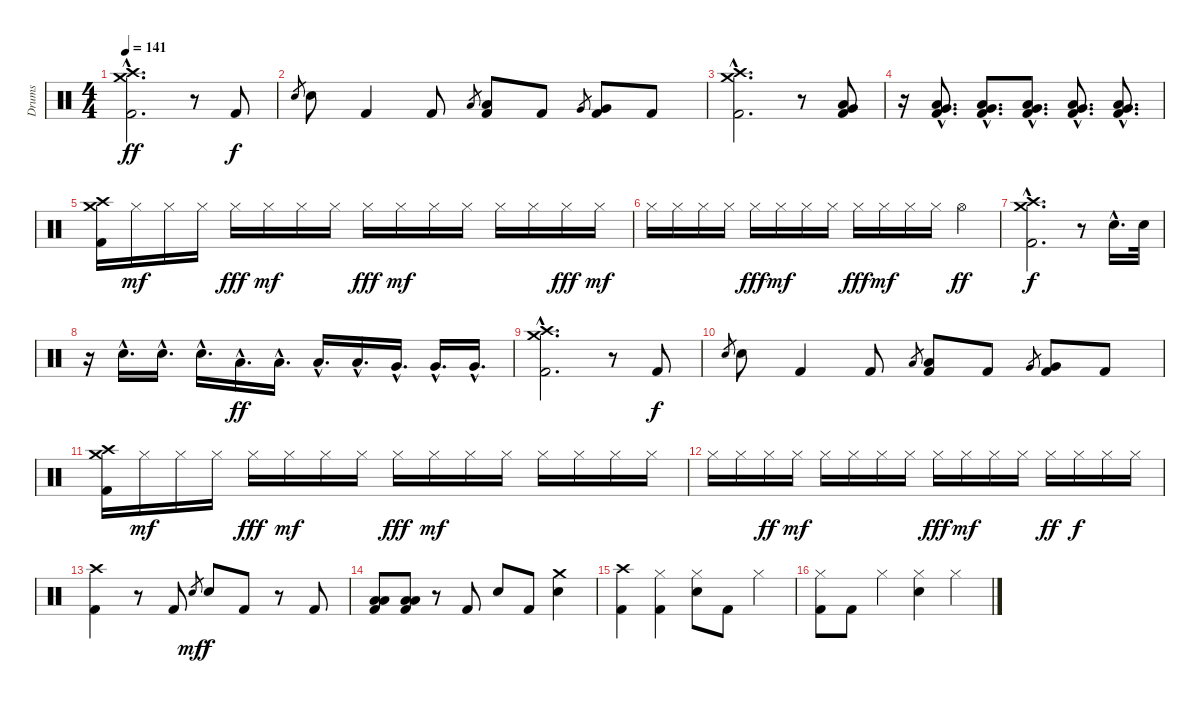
\track ("Drums" "Drums") {instrument percussion}
\staff {score}
\articulation defaults
\ts (4 4)
\tempo 141
\clef neutral
\ks c
("Crash medium (hit)"{hac} "Crash high (hit)"{hac} "Kick (hit) 2"{hac}).2{d dy ff} r.8 "Kick (hit) 2".8{dy f} |
"Snare (hit) 2".8{gr} "Snare (hit) 2".8 "Kick (hit) 2".4 "Kick (hit) 2".8 "Low Tom (hit)".8{gr} ("Low Tom (hit)" "Kick (hit) 2").8 "Kick (hit) 2".8 "Very Low Tom (hit)".8{gr} ("Very Low Tom (hit)" "Kick (hit) 2").8 "Kick (hit) 2".8 |
("Crash high (hit)"{hac} "Crash medium (hit)"{hac} "Kick (hit) 2"{hac}).2{d} r.8 ("Very Low Tom (hit)" "Low Floor Tom (hit)" "Kick (hit) 2").8 |
r.16 ("Very Low Tom (hit)"{hac} "Low Floor Tom (hit)"{hac} "Kick (hit) 2"{hac}).8{d} ("Very Low Tom (hit)"{hac} "Low Floor Tom (hit)"{hac} "Kick (hit) 2"{hac}).8{d} ("Very Low Tom (hit)"{hac} "Low Floor Tom (hit)"{hac} "Kick (hit) 2"{hac}).8{d} ("Very Low Tom (hit)"{hac} "Low Floor Tom (hit)"{hac} "Kick (hit) 2"{hac}).8{d} ("Very Low Tom (hit)"{hac} "Low Floor Tom (hit)"{hac} "Kick (hit) 2"{hac}).8{d} |
("Crash high (hit)" "Crash medium (hit)" "Kick (hit) 2").16 "Hi-Hat (closed)".16{dy mf} "Hi-Hat (closed)".16 "Hi-Hat (closed)".16 "Hi-Hat (closed)".16{dy fff} "Hi-Hat (closed)".16{dy mf} "Hi-Hat (closed)".16 "Hi-Hat (closed)".16 "Hi-Hat (closed)".16{dy fff} "Hi-Hat (closed)".16{dy mf} "Hi-Hat (closed)".16 "Hi-Hat (closed)".16 "Hi-Hat (closed)".16 "Hi-Hat (closed)".16 "Hi-Hat (closed)".16{dy fff} "Hi-Hat (closed)".16{dy mf} |
"Hi-Hat (closed)".16 "Hi-Hat (closed)".16 "Hi-Hat (closed)".16 "Hi-Hat (closed)".16 "Hi-Hat (closed)".16{dy fff} "Hi-Hat (closed)".16{dy mf} "Hi-Hat (closed)".16 "Hi-Hat (closed)".16 "Hi-Hat (closed)".16{dy fff} "Hi-Hat (closed)".16{dy mf} "Hi-Hat (closed)".16 "Hi-Hat (closed)".16 "Hi-Hat (open)".4{dy ff} |
("Crash high (hit)"{hac} "Crash medium (hit)"{hac} "Kick (hit) 2"{hac}).2{d dy f} r.8 "Snare (hit) 2"{hac}.16{d} "Snare (hit) 2".32 |
r.16 "Snare (hit) 2"{hac}.16{d} "Snare (hit) 2"{hac}.16{d} "Snare (hit) 2"{hac}.16{d} "Low Tom (hit)"{hac}.16{d dy ff} "Low Tom (hit)"{hac}.16{d} "Low Tom (hit)"{hac}.16{d} "Low Tom (hit)"{hac}.16{d} "Very Low Tom (hit)"{hac}.16{d} "Very Low Tom (hit)"{hac}.16{d} "Very Low Tom (hit)"{hac}.16{d} |
("Crash medium (hit)"{hac} "Crash high (hit)"{hac} "Kick (hit) 2"{hac}).2{d} r.8 "Kick (hit) 2".8{dy f} |
"Snare (hit) 2".8{gr} "Snare (hit) 2".8 "Kick (hit) 2".4 "Kick (hit) 2".8 "Low Tom (hit)".8{gr} ("Low Tom (hit)" "Kick (hit) 2").8 "Kick (hit) 2".8 "Very Low Tom (hit)".8{gr} ("Very Low Tom (hit)" "Kick (hit) 2").8 "Kick (hit) 2".8 |
("Crash high (hit)" "Crash medium (hit)" "Kick (hit) 2").16 "Hi-Hat (closed)".16{dy mf} "Hi-Hat (closed)".16 "Hi-Hat (closed)".16 "Hi-Hat (closed)".16{dy fff} "Hi-Hat (closed)".16{dy mf} "Hi-Hat (closed)".16 "Hi-Hat (closed)".16 "Hi-Hat (closed)".16{dy fff} "Hi-Hat (closed)".16{dy mf} "Hi-Hat (closed)".16 "Hi-Hat (closed)".16 "Hi-Hat (closed)".16 "Hi-Hat (closed)".16 "Hi-Hat (closed)".16 "Hi-Hat (closed)".16 |
"Hi-Hat (closed)".16 "Hi-Hat (closed)".16 "Hi-Hat (closed)".16{dy ff} "Hi-Hat (closed)".16{dy mf} "Hi-Hat (closed)".16 "Hi-Hat (closed)".16 "Hi-Hat (closed)".16 "Hi-Hat (closed)".16 "Hi-Hat (closed)".16{dy fff} "Hi-Hat (closed)".16{dy mf} "Hi-Hat (closed)".16 "Hi-Hat (closed)".16 "Hi-Hat (closed)".16{dy ff} "Hi-Hat (closed)".16{dy f} "Hi-Hat (closed)".16 "Hi-Hat (closed)".16 |
("Crash high (hit)" "Kick (hit) 2").4 r.8 "Kick (hit) 2".8 "Snare (hit) 2".8{gr dy mf} "Snare (hit) 2".8{dy f} "Kick (hit) 2".8 r.8 "Kick (hit) 2".8 |
("Low Tom (hit)" "Low Floor Tom (hit)" "Kick (hit) 2").8 ("Low Tom (hit)" "Low Floor Tom (hit)" "Kick (hit) 2").8 r.8 "Kick (hit) 2".8 "Snare (hit) 2".8 "Kick (hit) 2".8 ("Crash medium (hit)" "Snare (hit) 2").4 |
("Crash high (hit)" "Kick (hit) 2").4 ("Hi-Hat (closed)" "Kick (hit) 2").4 ("Hi-Hat (closed)" "Snare (hit) 2").8 "Kick (hit) 2".8 "Hi-Hat (closed)".4 |
("Hi-Hat (closed)" "Kick (hit) 2").8 "Kick (hit) 2".8 "Hi-Hat (closed)".4 ("Hi-Hat (closed)" "Snare (hit) 2").4 "Hi-Hat (closed)".4
